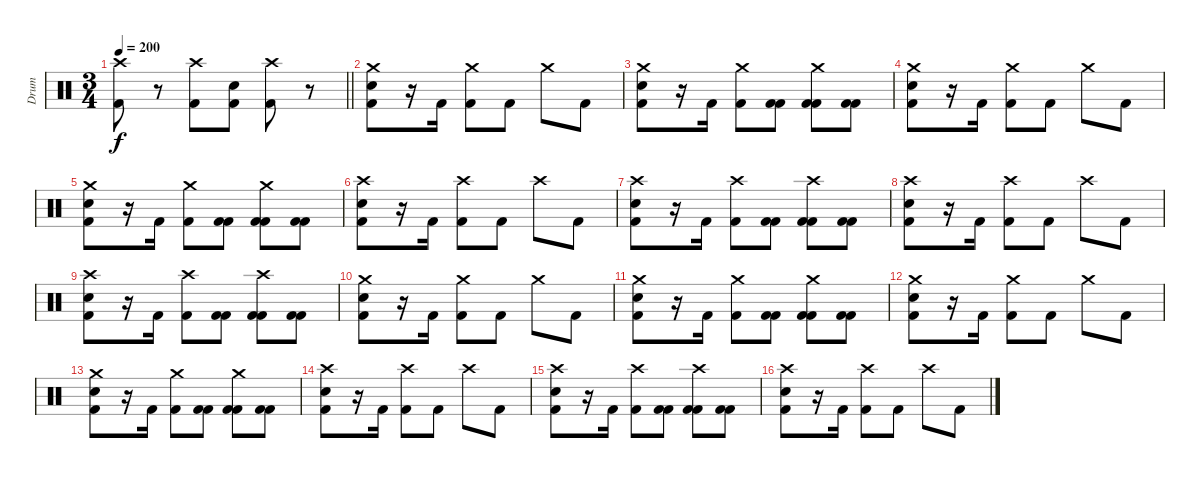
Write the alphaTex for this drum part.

\track ("Drum" "Drum") {instrument percussion}
\staff {score}
\articulation defaults
\ts (3 4)
\tempo 200
\clef neutral
\barLineRight lightlight
\ks c
("Crash high (hit)" "Kick (hit) 2").8{dy f} r.8 ("Crash high (hit)" "Kick (hit) 2").8 ("Electric Snare (hit)" "Kick (hit) 2").8 ("Crash high (hit)" "Kick (hit) 2").8 r.8 |
("Crash medium (hit)" "Electric Snare (hit)" "Kick (hit) 2").8 r.16 "Kick (hit) 2".16 ("Crash medium (hit)" "Kick (hit) 2").8 "Kick (hit) 2".8 "Crash medium (hit)".8 "Kick (hit) 2".8 |
("Crash medium (hit)" "Electric Snare (hit)" "Kick (hit) 2").8 r.16 "Kick (hit) 2".16 ("Crash medium (hit)" "Kick (hit) 2").8 ("Kick (hit) 2" "Kick (hit) 2").8 ("Crash medium (hit)" "Kick (hit) 2" "Kick (hit) 2").8 ("Kick (hit) 2" "Kick (hit) 2").8 |
("Crash medium (hit)" "Electric Snare (hit)" "Kick (hit) 2").8 r.16 "Kick (hit) 2".16 ("Crash medium (hit)" "Kick (hit) 2").8 "Kick (hit) 2".8 "Crash medium (hit)".8 "Kick (hit) 2".8 |
("Crash medium (hit)" "Electric Snare (hit)" "Kick (hit) 2").8 r.16 "Kick (hit) 2".16 ("Crash medium (hit)" "Kick (hit) 2").8 ("Kick (hit) 2" "Kick (hit) 2").8 ("Crash medium (hit)" "Kick (hit) 2" "Kick (hit) 2").8 ("Kick (hit) 2" "Kick (hit) 2").8 |
("Crash high (hit)" "Electric Snare (hit)" "Kick (hit) 2").8 r.16 "Kick (hit) 2".16 ("Crash high (hit)" "Kick (hit) 2").8 "Kick (hit) 2".8 "Crash high (hit)".8 "Kick (hit) 2".8 |
("Crash high (hit)" "Electric Snare (hit)" "Kick (hit) 2").8 r.16 "Kick (hit) 2".16 ("Crash high (hit)" "Kick (hit) 2").8 ("Kick (hit) 2" "Kick (hit) 2").8 ("Crash high (hit)" "Kick (hit) 2" "Kick (hit) 2").8 ("Kick (hit) 2" "Kick (hit) 2").8 |
("Crash high (hit)" "Electric Snare (hit)" "Kick (hit) 2").8 r.16 "Kick (hit) 2".16 ("Crash high (hit)" "Kick (hit) 2").8 "Kick (hit) 2".8 "Crash high (hit)".8 "Kick (hit) 2".8 |
("Crash high (hit)" "Electric Snare (hit)" "Kick (hit) 2").8 r.16 "Kick (hit) 2".16 ("Crash high (hit)" "Kick (hit) 2").8 ("Kick (hit) 2" "Kick (hit) 2").8 ("Crash high (hit)" "Kick (hit) 2" "Kick (hit) 2").8 ("Kick (hit) 2" "Kick (hit) 2").8 |
("Crash medium (hit)" "Electric Snare (hit)" "Kick (hit) 2").8 r.16 "Kick (hit) 2".16 ("Crash medium (hit)" "Kick (hit) 2").8 "Kick (hit) 2".8 "Crash medium (hit)".8 "Kick (hit) 2".8 |
("Crash medium (hit)" "Electric Snare (hit)" "Kick (hit) 2").8 r.16 "Kick (hit) 2".16 ("Crash medium (hit)" "Kick (hit) 2").8 ("Kick (hit) 2" "Kick (hit) 2").8 ("Crash medium (hit)" "Kick (hit) 2" "Kick (hit) 2").8 ("Kick (hit) 2" "Kick (hit) 2").8 |
("Crash medium (hit)" "Electric Snare (hit)" "Kick (hit) 2").8 r.16 "Kick (hit) 2".16 ("Crash medium (hit)" "Kick (hit) 2").8 "Kick (hit) 2".8 "Crash medium (hit)".8 "Kick (hit) 2".8 |
("Crash medium (hit)" "Electric Snare (hit)" "Kick (hit) 2").8 r.16 "Kick (hit) 2".16 ("Crash medium (hit)" "Kick (hit) 2").8 ("Kick (hit) 2" "Kick (hit) 2").8 ("Crash medium (hit)" "Kick (hit) 2" "Kick (hit) 2").8 ("Kick (hit) 2" "Kick (hit) 2").8 |
("Crash high (hit)" "Electric Snare (hit)" "Kick (hit) 2").8 r.16 "Kick (hit) 2".16 ("Crash high (hit)" "Kick (hit) 2").8 "Kick (hit) 2".8 "Crash high (hit)".8 "Kick (hit) 2".8 |
("Crash high (hit)" "Electric Snare (hit)" "Kick (hit) 2").8 r.16 "Kick (hit) 2".16 ("Crash high (hit)" "Kick (hit) 2").8 ("Kick (hit) 2" "Kick (hit) 2").8 ("Crash high (hit)" "Kick (hit) 2" "Kick (hit) 2").8 ("Kick (hit) 2" "Kick (hit) 2").8 |
("Crash high (hit)" "Electric Snare (hit)" "Kick (hit) 2").8 r.16 "Kick (hit) 2".16 ("Crash high (hit)" "Kick (hit) 2").8 "Kick (hit) 2".8 "Crash high (hit)".8 "Kick (hit) 2".8
